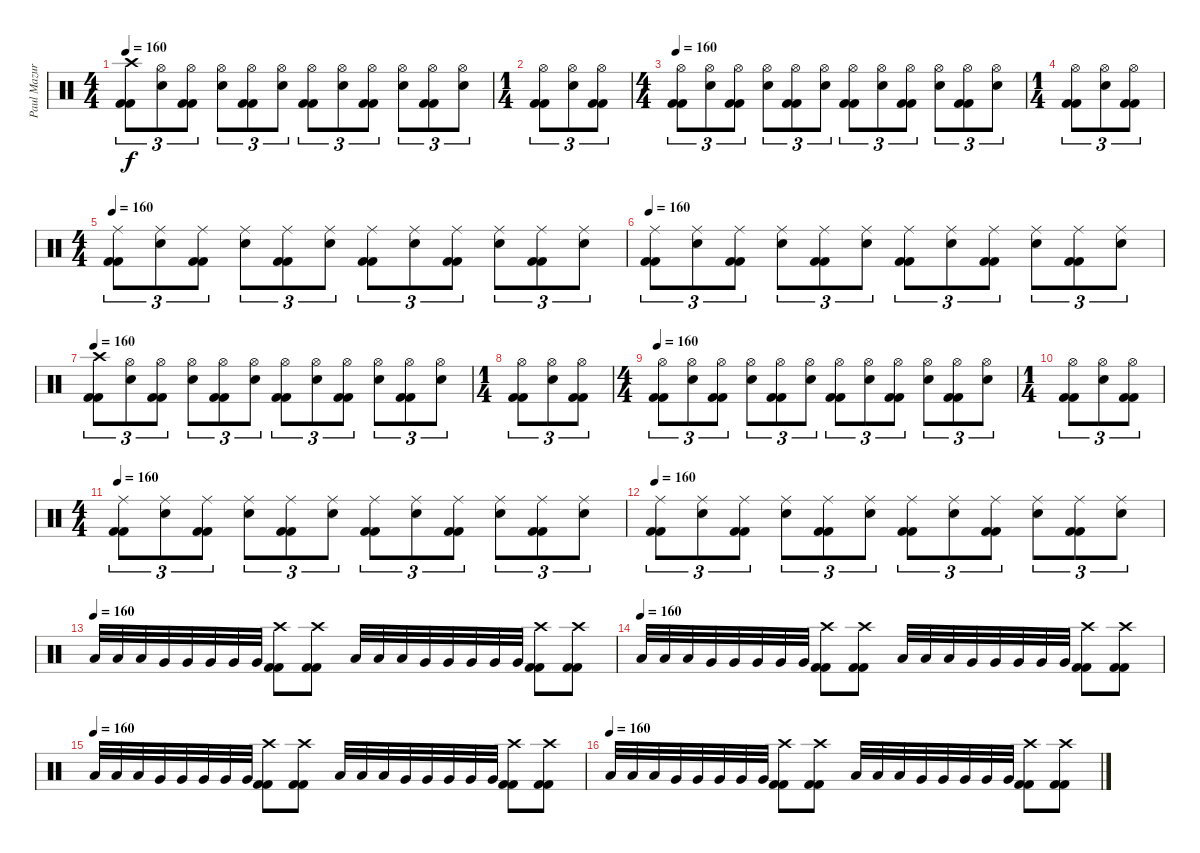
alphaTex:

\track ("Paul Mazurkiewicz" "Paul Mazur") {instrument percussion}
\staff {score}
\articulation defaults
\ts (4 4)
\tempo 160
\clef neutral
\ks c
("Kick (hit) 2" "Crash high (hit)" "Kick (hit) 2").8{tu (3 2) dy f} ("Hi-Hat (open)" "Snare (hit) 2").8{tu (3 2)} ("Kick (hit) 2" "Hi-Hat (open)" "Kick (hit) 2").8{tu (3 2)} ("Hi-Hat (open)" "Snare (hit) 2").8{tu (3 2)} ("Kick (hit) 2" "Hi-Hat (open)" "Kick (hit) 2").8{tu (3 2)} ("Hi-Hat (open)" "Snare (hit) 2").8{tu (3 2)} ("Kick (hit) 2" "Hi-Hat (open)" "Kick (hit) 2").8{tu (3 2)} ("Hi-Hat (open)" "Snare (hit) 2").8{tu (3 2)} ("Kick (hit) 2" "Hi-Hat (open)" "Kick (hit) 2").8{tu (3 2)} ("Hi-Hat (open)" "Snare (hit) 2").8{tu (3 2)} ("Kick (hit) 2" "Hi-Hat (open)" "Kick (hit) 2").8{tu (3 2)} ("Hi-Hat (open)" "Snare (hit) 2").8{tu (3 2)} |
\ts (1 4)
("Kick (hit) 2" "Hi-Hat (open)" "Kick (hit) 2").8{tu (3 2)} ("Hi-Hat (open)" "Snare (hit) 2").8{tu (3 2)} ("Kick (hit) 2" "Hi-Hat (open)" "Kick (hit) 2").8{tu (3 2)} |
\ts (4 4)
\tempo 160
("Kick (hit) 2" "Hi-Hat (open)" "Kick (hit) 2").8{tu (3 2)} ("Hi-Hat (open)" "Snare (hit) 2").8{tu (3 2)} ("Kick (hit) 2" "Hi-Hat (open)" "Kick (hit) 2").8{tu (3 2)} ("Hi-Hat (open)" "Snare (hit) 2").8{tu (3 2)} ("Kick (hit) 2" "Hi-Hat (open)" "Kick (hit) 2").8{tu (3 2)} ("Hi-Hat (open)" "Snare (hit) 2").8{tu (3 2)} ("Kick (hit) 2" "Hi-Hat (open)" "Kick (hit) 2").8{tu (3 2)} ("Hi-Hat (open)" "Snare (hit) 2").8{tu (3 2)} ("Kick (hit) 2" "Hi-Hat (open)" "Kick (hit) 2").8{tu (3 2)} ("Hi-Hat (open)" "Snare (hit) 2").8{tu (3 2)} ("Kick (hit) 2" "Hi-Hat (open)" "Kick (hit) 2").8{tu (3 2)} ("Hi-Hat (open)" "Snare (hit) 2").8{tu (3 2)} |
\ts (1 4)
("Kick (hit) 2" "Hi-Hat (open)" "Kick (hit) 2").8{tu (3 2)} ("Hi-Hat (open)" "Snare (hit) 2").8{tu (3 2)} ("Kick (hit) 2" "Hi-Hat (open)" "Kick (hit) 2").8{tu (3 2)} |
\ts (4 4)
\tempo 160
("Kick (hit) 2" "Ride (middle)" "Kick (hit) 2").8{tu (3 2)} ("Ride (middle)" "Snare (hit) 2").8{tu (3 2)} ("Kick (hit) 2" "Ride (middle)" "Kick (hit) 2").8{tu (3 2)} ("Ride (middle)" "Snare (hit) 2").8{tu (3 2)} ("Kick (hit) 2" "Ride (middle)" "Kick (hit) 2").8{tu (3 2)} ("Ride (middle)" "Snare (hit) 2").8{tu (3 2)} ("Kick (hit) 2" "Ride (middle)" "Kick (hit) 2").8{tu (3 2)} ("Ride (middle)" "Snare (hit) 2").8{tu (3 2)} ("Kick (hit) 2" "Ride (middle)" "Kick (hit) 2").8{tu (3 2)} ("Ride (middle)" "Snare (hit) 2").8{tu (3 2)} ("Kick (hit) 2" "Ride (middle)" "Kick (hit) 2").8{tu (3 2)} ("Ride (middle)" "Snare (hit) 2").8{tu (3 2)} |
\tempo 160
("Kick (hit) 2" "Ride (middle)" "Kick (hit) 2").8{tu (3 2)} ("Ride (middle)" "Snare (hit) 2").8{tu (3 2)} ("Kick (hit) 2" "Ride (middle)" "Kick (hit) 2").8{tu (3 2)} ("Ride (middle)" "Snare (hit) 2").8{tu (3 2)} ("Kick (hit) 2" "Ride (middle)" "Kick (hit) 2").8{tu (3 2)} ("Ride (middle)" "Snare (hit) 2").8{tu (3 2)} ("Kick (hit) 2" "Ride (middle)" "Kick (hit) 2").8{tu (3 2)} ("Ride (middle)" "Snare (hit) 2").8{tu (3 2)} ("Kick (hit) 2" "Ride (middle)" "Kick (hit) 2").8{tu (3 2)} ("Ride (middle)" "Snare (hit) 2").8{tu (3 2)} ("Kick (hit) 2" "Ride (middle)" "Kick (hit) 2").8{tu (3 2)} ("Ride (middle)" "Snare (hit) 2").8{tu (3 2)} |
\tempo 160
("Kick (hit) 2" "Crash high (hit)" "Kick (hit) 2").8{tu (3 2)} ("Hi-Hat (open)" "Snare (hit) 2").8{tu (3 2)} ("Kick (hit) 2" "Hi-Hat (open)" "Kick (hit) 2").8{tu (3 2)} ("Hi-Hat (open)" "Snare (hit) 2").8{tu (3 2)} ("Kick (hit) 2" "Hi-Hat (open)" "Kick (hit) 2").8{tu (3 2)} ("Hi-Hat (open)" "Snare (hit) 2").8{tu (3 2)} ("Kick (hit) 2" "Hi-Hat (open)" "Kick (hit) 2").8{tu (3 2)} ("Hi-Hat (open)" "Snare (hit) 2").8{tu (3 2)} ("Kick (hit) 2" "Hi-Hat (open)" "Kick (hit) 2").8{tu (3 2)} ("Hi-Hat (open)" "Snare (hit) 2").8{tu (3 2)} ("Kick (hit) 2" "Hi-Hat (open)" "Kick (hit) 2").8{tu (3 2)} ("Hi-Hat (open)" "Snare (hit) 2").8{tu (3 2)} |
\ts (1 4)
("Kick (hit) 2" "Hi-Hat (open)" "Kick (hit) 2").8{tu (3 2)} ("Hi-Hat (open)" "Snare (hit) 2").8{tu (3 2)} ("Kick (hit) 2" "Hi-Hat (open)" "Kick (hit) 2").8{tu (3 2)} |
\ts (4 4)
\tempo 160
("Kick (hit) 2" "Hi-Hat (open)" "Kick (hit) 2").8{tu (3 2)} ("Hi-Hat (open)" "Snare (hit) 2").8{tu (3 2)} ("Kick (hit) 2" "Hi-Hat (open)" "Kick (hit) 2").8{tu (3 2)} ("Hi-Hat (open)" "Snare (hit) 2").8{tu (3 2)} ("Kick (hit) 2" "Hi-Hat (open)" "Kick (hit) 2").8{tu (3 2)} ("Hi-Hat (open)" "Snare (hit) 2").8{tu (3 2)} ("Kick (hit) 2" "Hi-Hat (open)" "Kick (hit) 2").8{tu (3 2)} ("Hi-Hat (open)" "Snare (hit) 2").8{tu (3 2)} ("Kick (hit) 2" "Hi-Hat (open)" "Kick (hit) 2").8{tu (3 2)} ("Hi-Hat (open)" "Snare (hit) 2").8{tu (3 2)} ("Kick (hit) 2" "Hi-Hat (open)" "Kick (hit) 2").8{tu (3 2)} ("Hi-Hat (open)" "Snare (hit) 2").8{tu (3 2)} |
\ts (1 4)
("Kick (hit) 2" "Hi-Hat (open)" "Kick (hit) 2").8{tu (3 2)} ("Hi-Hat (open)" "Snare (hit) 2").8{tu (3 2)} ("Kick (hit) 2" "Hi-Hat (open)" "Kick (hit) 2").8{tu (3 2)} |
\ts (4 4)
\tempo 160
("Kick (hit) 2" "Ride (middle)" "Kick (hit) 2").8{tu (3 2)} ("Ride (middle)" "Snare (hit) 2").8{tu (3 2)} ("Kick (hit) 2" "Ride (middle)" "Kick (hit) 2").8{tu (3 2)} ("Ride (middle)" "Snare (hit) 2").8{tu (3 2)} ("Kick (hit) 2" "Ride (middle)" "Kick (hit) 2").8{tu (3 2)} ("Ride (middle)" "Snare (hit) 2").8{tu (3 2)} ("Kick (hit) 2" "Ride (middle)" "Kick (hit) 2").8{tu (3 2)} ("Ride (middle)" "Snare (hit) 2").8{tu (3 2)} ("Kick (hit) 2" "Ride (middle)" "Kick (hit) 2").8{tu (3 2)} ("Ride (middle)" "Snare (hit) 2").8{tu (3 2)} ("Kick (hit) 2" "Ride (middle)" "Kick (hit) 2").8{tu (3 2)} ("Ride (middle)" "Snare (hit) 2").8{tu (3 2)} |
\tempo 160
("Kick (hit) 2" "Ride (middle)" "Kick (hit) 2").8{tu (3 2)} ("Ride (middle)" "Snare (hit) 2").8{tu (3 2)} ("Kick (hit) 2" "Ride (middle)" "Kick (hit) 2").8{tu (3 2)} ("Ride (middle)" "Snare (hit) 2").8{tu (3 2)} ("Kick (hit) 2" "Ride (middle)" "Kick (hit) 2").8{tu (3 2)} ("Ride (middle)" "Snare (hit) 2").8{tu (3 2)} ("Kick (hit) 2" "Ride (middle)" "Kick (hit) 2").8{tu (3 2)} ("Ride (middle)" "Snare (hit) 2").8{tu (3 2)} ("Kick (hit) 2" "Ride (middle)" "Kick (hit) 2").8{tu (3 2)} ("Ride (middle)" "Snare (hit) 2").8{tu (3 2)} ("Kick (hit) 2" "Ride (middle)" "Kick (hit) 2").8{tu (3 2)} ("Ride (middle)" "Snare (hit) 2").8{tu (3 2)} |
\tempo (160)
"Low Tom (hit)".32 "Low Tom (hit)".32 "Low Tom (hit)".32 "Very Low Tom (hit)".32 "Very Low Tom (hit)".32 "Very Low Tom (hit)".32 "Very Low Tom (hit)".32 "Very Low Tom (hit)".32 ("Crash high (hit)" "Kick (hit) 2" "Kick (hit) 2").8 ("Crash high (hit)" "Kick (hit) 2" "Kick (hit) 2").8 "Low Tom (hit)".32 "Low Tom (hit)".32 "Low Tom (hit)".32 "Very Low Tom (hit)".32 "Very Low Tom (hit)".32 "Very Low Tom (hit)".32 "Very Low Tom (hit)".32 "Very Low Tom (hit)".32 ("Crash high (hit)" "Kick (hit) 2" "Kick (hit) 2").8 ("Crash high (hit)" "Kick (hit) 2" "Kick (hit) 2").8 |
\tempo (160)
"Low Tom (hit)".32 "Low Tom (hit)".32 "Low Tom (hit)".32 "Very Low Tom (hit)".32 "Very Low Tom (hit)".32 "Very Low Tom (hit)".32 "Very Low Tom (hit)".32 "Very Low Tom (hit)".32 ("Crash high (hit)" "Kick (hit) 2" "Kick (hit) 2").8 ("Crash high (hit)" "Kick (hit) 2" "Kick (hit) 2").8 "Low Tom (hit)".32 "Low Tom (hit)".32 "Low Tom (hit)".32 "Very Low Tom (hit)".32 "Very Low Tom (hit)".32 "Very Low Tom (hit)".32 "Very Low Tom (hit)".32 "Very Low Tom (hit)".32 ("Crash high (hit)" "Kick (hit) 2" "Kick (hit) 2").8 ("Crash high (hit)" "Kick (hit) 2" "Kick (hit) 2").8 |
\tempo (160)
"Low Tom (hit)".32 "Low Tom (hit)".32 "Low Tom (hit)".32 "Very Low Tom (hit)".32 "Very Low Tom (hit)".32 "Very Low Tom (hit)".32 "Very Low Tom (hit)".32 "Very Low Tom (hit)".32 ("Crash high (hit)" "Kick (hit) 2" "Kick (hit) 2").8 ("Crash high (hit)" "Kick (hit) 2" "Kick (hit) 2").8 "Low Tom (hit)".32 "Low Tom (hit)".32 "Low Tom (hit)".32 "Very Low Tom (hit)".32 "Very Low Tom (hit)".32 "Very Low Tom (hit)".32 "Very Low Tom (hit)".32 "Very Low Tom (hit)".32 ("Crash high (hit)" "Kick (hit) 2" "Kick (hit) 2").8 ("Crash high (hit)" "Kick (hit) 2" "Kick (hit) 2").8 |
\tempo (160)
"Low Tom (hit)".32 "Low Tom (hit)".32 "Low Tom (hit)".32 "Very Low Tom (hit)".32 "Very Low Tom (hit)".32 "Very Low Tom (hit)".32 "Very Low Tom (hit)".32 "Very Low Tom (hit)".32 ("Crash high (hit)" "Kick (hit) 2" "Kick (hit) 2").8 ("Crash high (hit)" "Kick (hit) 2" "Kick (hit) 2").8 "Low Tom (hit)".32 "Low Tom (hit)".32 "Low Tom (hit)".32 "Very Low Tom (hit)".32 "Very Low Tom (hit)".32 "Very Low Tom (hit)".32 "Very Low Tom (hit)".32 "Very Low Tom (hit)".32 ("Crash high (hit)" "Kick (hit) 2" "Kick (hit) 2").8 ("Crash high (hit)" "Kick (hit) 2" "Kick (hit) 2").8
